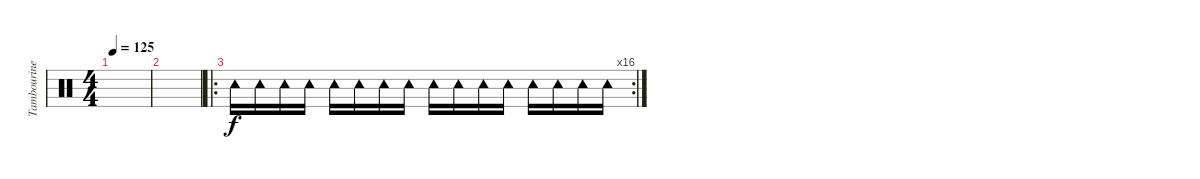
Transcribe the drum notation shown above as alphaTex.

\track ("Tambourine" "Tambourine") {instrument percussion}
\staff {score}
\articulation defaults
\ts (4 4)
\tempo 125
\clef neutral
\ks c
|
|
\ro
\rc 16 "Tambourine (hit)".16 "Tambourine (hit)".16 "Tambourine (hit)".16 "Tambourine (hit)".16 "Tambourine (hit)".16 "Tambourine (hit)".16 "Tambourine (hit)".16 "Tambourine (hit)".16 "Tambourine (hit)".16 "Tambourine (hit)".16 "Tambourine (hit)".16 "Tambourine (hit)".16 "Tambourine (hit)".16 "Tambourine (hit)".16 "Tambourine (hit)".16 "Tambourine (hit)".16
